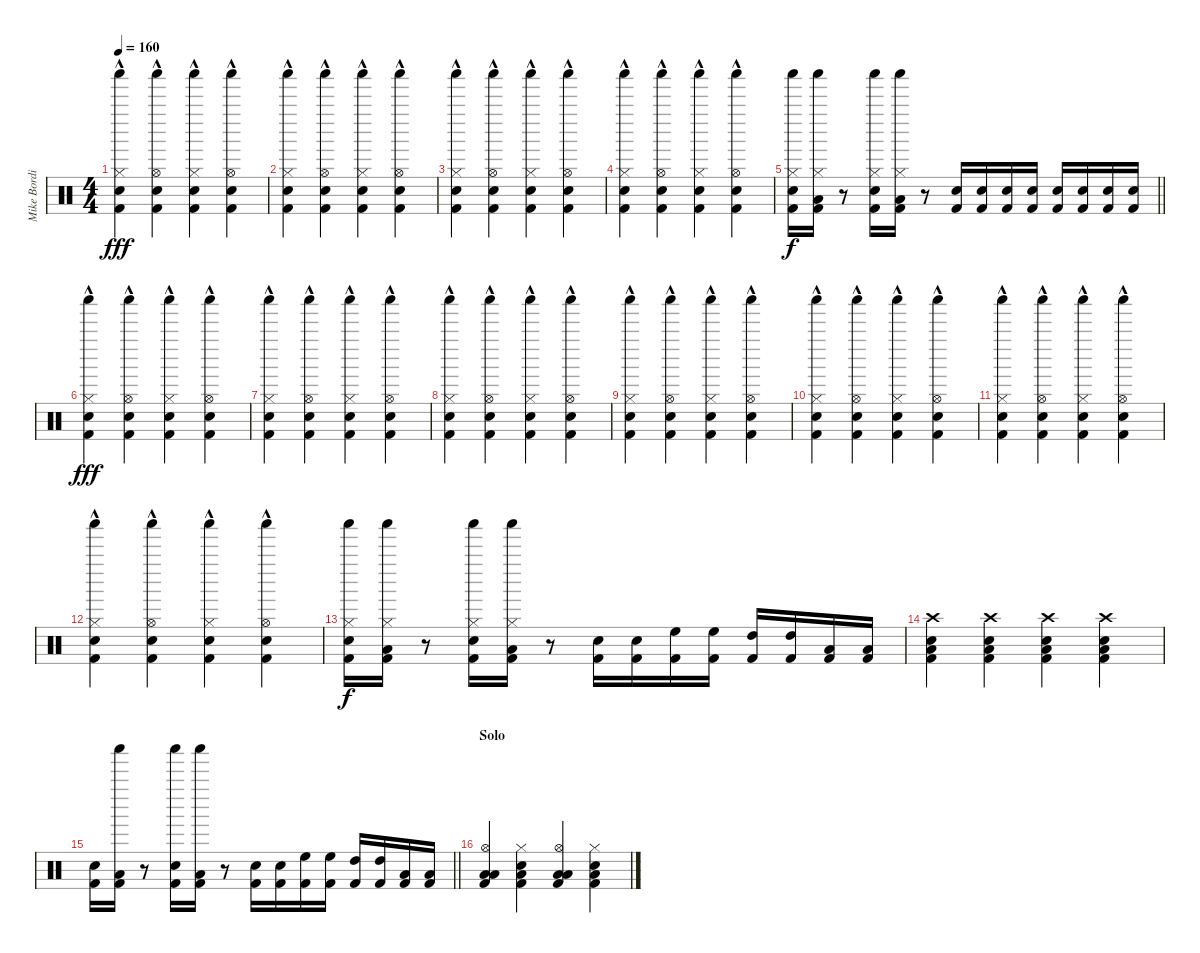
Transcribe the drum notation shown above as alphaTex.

\track ("Mike Bordin - Percussion" "Mike Bordi") {instrument percussion}
\staff {score}
\articulation defaults
\ts (4 4)
\tempo 160
\clef neutral
\ks c
("Shaker (hit)" "Snare (hit) 2" "Hi-Hat (closed)"{hac} "Kick (hit) 2").4{dy fff} ("Shaker (hit)" "Snare (hit) 2" "Hi-Hat (open)"{hac} "Kick (hit) 2").4 ("Shaker (hit)" "Snare (hit) 2" "Hi-Hat (closed)"{hac} "Kick (hit) 2").4 ("Shaker (hit)" "Snare (hit) 2" "Hi-Hat (open)"{hac} "Kick (hit) 2").4 |
("Shaker (hit)" "Snare (hit) 2" "Hi-Hat (closed)"{hac} "Kick (hit) 2").4 ("Shaker (hit)" "Snare (hit) 2" "Hi-Hat (open)"{hac} "Kick (hit) 2").4 ("Shaker (hit)" "Snare (hit) 2" "Hi-Hat (closed)"{hac} "Kick (hit) 2").4 ("Shaker (hit)" "Snare (hit) 2" "Hi-Hat (open)"{hac} "Kick (hit) 2").4 |
("Shaker (hit)" "Snare (hit) 2" "Hi-Hat (closed)"{hac} "Kick (hit) 2").4 ("Shaker (hit)" "Snare (hit) 2" "Hi-Hat (open)"{hac} "Kick (hit) 2").4 ("Shaker (hit)" "Snare (hit) 2" "Hi-Hat (closed)"{hac} "Kick (hit) 2").4 ("Shaker (hit)" "Snare (hit) 2" "Hi-Hat (open)"{hac} "Kick (hit) 2").4 |
("Shaker (hit)" "Snare (hit) 2" "Hi-Hat (closed)"{hac} "Kick (hit) 2").4 ("Shaker (hit)" "Snare (hit) 2" "Hi-Hat (open)"{hac} "Kick (hit) 2").4 ("Shaker (hit)" "Snare (hit) 2" "Hi-Hat (closed)"{hac} "Kick (hit) 2").4 ("Shaker (hit)" "Snare (hit) 2" "Hi-Hat (open)"{hac} "Kick (hit) 2").4 |
\barLineRight lightlight
("Snare (hit) 2" "Hi-Hat (closed)" "Shaker (hit)" "Kick (hit) 2").16{dy f} ("Low Tom (hit)" "Hi-Hat (closed)" "Shaker (hit)" "Kick (hit) 2").16 r.8 ("Snare (hit) 2" "Hi-Hat (closed)" "Shaker (hit)" "Kick (hit) 2").16 ("Low Tom (hit)" "Hi-Hat (closed)" "Shaker (hit)" "Kick (hit) 2").16 r.8 ("Snare (hit) 2" "Kick (hit) 2").16 ("Snare (hit) 2" "Kick (hit) 2").16 ("Snare (hit) 2" "Kick (hit) 2").16 ("Snare (hit) 2" "Kick (hit) 2").16 ("Snare (hit) 2" "Kick (hit) 2").16 ("Snare (hit) 2" "Kick (hit) 2").16 ("Snare (hit) 2" "Kick (hit) 2").16 ("Snare (hit) 2" "Kick (hit) 2").16 |
\section ("" "")
("Shaker (hit)" "Snare (hit) 2" "Hi-Hat (closed)"{hac} "Kick (hit) 2").4{dy fff} ("Shaker (hit)" "Snare (hit) 2" "Hi-Hat (open)"{hac} "Kick (hit) 2").4 ("Shaker (hit)" "Snare (hit) 2" "Hi-Hat (closed)"{hac} "Kick (hit) 2").4 ("Shaker (hit)" "Snare (hit) 2" "Hi-Hat (open)"{hac} "Kick (hit) 2").4 |
("Shaker (hit)" "Snare (hit) 2" "Hi-Hat (closed)"{hac} "Kick (hit) 2").4 ("Shaker (hit)" "Snare (hit) 2" "Hi-Hat (open)"{hac} "Kick (hit) 2").4 ("Shaker (hit)" "Snare (hit) 2" "Hi-Hat (closed)"{hac} "Kick (hit) 2").4 ("Shaker (hit)" "Snare (hit) 2" "Hi-Hat (open)"{hac} "Kick (hit) 2").4 |
("Shaker (hit)" "Snare (hit) 2" "Hi-Hat (closed)"{hac} "Kick (hit) 2").4 ("Shaker (hit)" "Snare (hit) 2" "Hi-Hat (open)"{hac} "Kick (hit) 2").4 ("Shaker (hit)" "Snare (hit) 2" "Hi-Hat (closed)"{hac} "Kick (hit) 2").4 ("Shaker (hit)" "Snare (hit) 2" "Hi-Hat (open)"{hac} "Kick (hit) 2").4 |
("Shaker (hit)" "Snare (hit) 2" "Hi-Hat (closed)"{hac} "Kick (hit) 2").4 ("Shaker (hit)" "Snare (hit) 2" "Hi-Hat (open)"{hac} "Kick (hit) 2").4 ("Shaker (hit)" "Snare (hit) 2" "Hi-Hat (closed)"{hac} "Kick (hit) 2").4 ("Shaker (hit)" "Snare (hit) 2" "Hi-Hat (open)"{hac} "Kick (hit) 2").4 |
("Shaker (hit)" "Snare (hit) 2" "Hi-Hat (closed)"{hac} "Kick (hit) 2").4 ("Shaker (hit)" "Snare (hit) 2" "Hi-Hat (open)"{hac} "Kick (hit) 2").4 ("Shaker (hit)" "Snare (hit) 2" "Hi-Hat (closed)"{hac} "Kick (hit) 2").4 ("Shaker (hit)" "Snare (hit) 2" "Hi-Hat (open)"{hac} "Kick (hit) 2").4 |
("Shaker (hit)" "Snare (hit) 2" "Hi-Hat (closed)"{hac} "Kick (hit) 2").4 ("Shaker (hit)" "Snare (hit) 2" "Hi-Hat (open)"{hac} "Kick (hit) 2").4 ("Shaker (hit)" "Snare (hit) 2" "Hi-Hat (closed)"{hac} "Kick (hit) 2").4 ("Shaker (hit)" "Snare (hit) 2" "Hi-Hat (open)"{hac} "Kick (hit) 2").4 |
("Shaker (hit)" "Snare (hit) 2" "Hi-Hat (closed)"{hac} "Kick (hit) 2").4 ("Shaker (hit)" "Snare (hit) 2" "Hi-Hat (open)"{hac} "Kick (hit) 2").4 ("Shaker (hit)" "Snare (hit) 2" "Hi-Hat (closed)"{hac} "Kick (hit) 2").4 ("Shaker (hit)" "Snare (hit) 2" "Hi-Hat (open)"{hac} "Kick (hit) 2").4 |
("Snare (hit) 2" "Hi-Hat (closed)" "Shaker (hit)" "Kick (hit) 2").16{dy f} ("Low Tom (hit)" "Hi-Hat (closed)" "Shaker (hit)" "Kick (hit) 2").16 r.8 ("Snare (hit) 2" "Hi-Hat (closed)" "Shaker (hit)" "Kick (hit) 2").16 ("Low Tom (hit)" "Hi-Hat (closed)" "Shaker (hit)" "Kick (hit) 2").16 r.8 ("Snare (hit) 2" "Kick (hit) 2").16 ("Snare (hit) 2" "Kick (hit) 2").16 ("High Floor Tom (hit)" "Kick (hit) 2").16 ("High Floor Tom (hit)" "Kick (hit) 2").16 ("High Tom (hit)" "Kick (hit) 2").16 ("High Tom (hit)" "Kick (hit) 2").16 ("Low Floor Tom (hit)" "Kick (hit) 2").16 ("Low Floor Tom (hit)" "Kick (hit) 2").16 |
("Crash high (hit)" "Snare (hit) 2" "Low Floor Tom (hit)" "Kick (hit) 2").4 ("Crash high (hit)" "Snare (hit) 2" "Low Floor Tom (hit)" "Kick (hit) 2").4 ("Crash high (hit)" "Snare (hit) 2" "Low Floor Tom (hit)" "Kick (hit) 2").4 ("Crash high (hit)" "Snare (hit) 2" "Low Floor Tom (hit)" "Kick (hit) 2").4 |
\barLineRight lightlight
("Snare (hit) 2" "Kick (hit) 2").16 ("Low Tom (hit)" "Shaker (hit)" "Kick (hit) 2").16 r.8 ("Snare (hit) 2" "Shaker (hit)" "Kick (hit) 2").16 ("Low Tom (hit)" "Shaker (hit)" "Kick (hit) 2").16 r.8 ("Snare (hit) 2" "Kick (hit) 2").16 ("Snare (hit) 2" "Kick (hit) 2").16 ("High Floor Tom (hit)" "Kick (hit) 2").16 ("High Floor Tom (hit)" "Kick (hit) 2").16 ("High Tom (hit)" "Kick (hit) 2").16 ("High Tom (hit)" "Kick (hit) 2").16 ("Low Floor Tom (hit)" "Kick (hit) 2").16 ("Low Floor Tom (hit)" "Kick (hit) 2").16 |
\section ("" "Solo")
("Hi-Hat (open)" "Low Floor Tom (hit)" "Low Tom (hit)" "Kick (hit) 2").4{volume 16} ("Hi-Hat (closed)" "Snare (hit) 2" "Low Tom (hit)" "Kick (hit) 2").4 ("Hi-Hat (open)" "Low Floor Tom (hit)" "Low Tom (hit)" "Kick (hit) 2").4 ("Hi-Hat (closed)" "Snare (hit) 2" "Low Tom (hit)" "Kick (hit) 2").4
